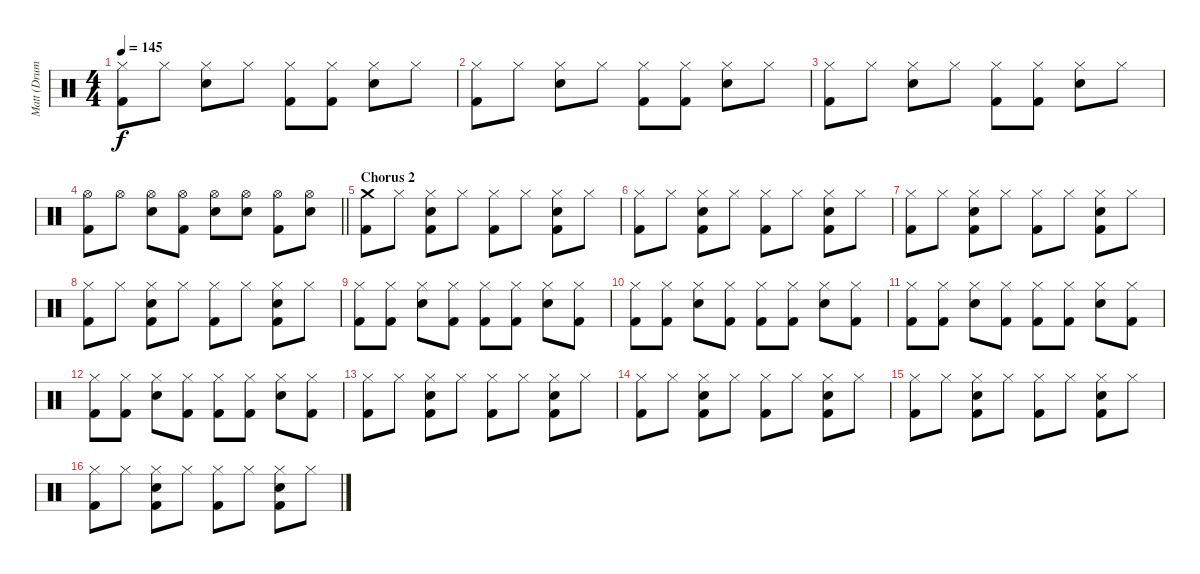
\track ("Matt (Drums)" "Matt (Drum") {instrument percussion}
\staff {score}
\articulation defaults
\ts (4 4)
\tempo 145
\clef neutral
\ks c
("Hi-Hat (closed)" "Kick (hit) 2").8{dy f} "Hi-Hat (closed)".8 ("Hi-Hat (closed)" "Electric Snare (hit)").8 "Hi-Hat (closed)".8 ("Hi-Hat (closed)" "Kick (hit) 2").8 ("Hi-Hat (closed)" "Kick (hit) 2").8 ("Hi-Hat (closed)" "Electric Snare (hit)").8 "Hi-Hat (closed)".8 |
("Hi-Hat (closed)" "Kick (hit) 2").8 "Hi-Hat (closed)".8 ("Hi-Hat (closed)" "Electric Snare (hit)").8 "Hi-Hat (closed)".8 ("Hi-Hat (closed)" "Kick (hit) 2").8 ("Hi-Hat (closed)" "Kick (hit) 2").8 ("Hi-Hat (closed)" "Electric Snare (hit)").8 "Hi-Hat (closed)".8 |
("Hi-Hat (closed)" "Kick (hit) 2").8 "Hi-Hat (closed)".8 ("Hi-Hat (closed)" "Electric Snare (hit)").8 "Hi-Hat (closed)".8 ("Hi-Hat (closed)" "Kick (hit) 2").8 ("Hi-Hat (closed)" "Kick (hit) 2").8 ("Hi-Hat (closed)" "Electric Snare (hit)").8 "Hi-Hat (closed)".8 |
\barLineRight lightlight
("Hi-Hat (open)" "Kick (hit) 2").8 "Hi-Hat (open)".8 ("Hi-Hat (open)" "Electric Snare (hit)").8 ("Hi-Hat (open)" "Kick (hit) 2").8 ("Hi-Hat (open)" "Electric Snare (hit)").8 ("Hi-Hat (open)" "Electric Snare (hit)").8 ("Hi-Hat (open)" "Kick (hit) 2").8 ("Hi-Hat (open)" "Electric Snare (hit)").8 |
\section ("" "Chorus 2")
("Crash medium (hit)" "Kick (hit) 2").8 "Hi-Hat (closed)".8 ("Hi-Hat (closed)" "Electric Snare (hit)" "Kick (hit) 2").8 "Hi-Hat (closed)".8 ("Hi-Hat (closed)" "Kick (hit) 2").8 "Hi-Hat (closed)".8 ("Hi-Hat (closed)" "Electric Snare (hit)" "Kick (hit) 2").8 "Hi-Hat (closed)".8 |
("Hi-Hat (closed)" "Kick (hit) 2").8 "Hi-Hat (closed)".8 ("Hi-Hat (closed)" "Electric Snare (hit)" "Kick (hit) 2").8 "Hi-Hat (closed)".8 ("Hi-Hat (closed)" "Kick (hit) 2").8 "Hi-Hat (closed)".8 ("Hi-Hat (closed)" "Electric Snare (hit)" "Kick (hit) 2").8 "Hi-Hat (closed)".8 |
("Hi-Hat (closed)" "Kick (hit) 2").8 "Hi-Hat (closed)".8 ("Hi-Hat (closed)" "Electric Snare (hit)" "Kick (hit) 2").8 "Hi-Hat (closed)".8 ("Hi-Hat (closed)" "Kick (hit) 2").8 "Hi-Hat (closed)".8 ("Hi-Hat (closed)" "Electric Snare (hit)" "Kick (hit) 2").8 "Hi-Hat (closed)".8 |
("Hi-Hat (closed)" "Kick (hit) 2").8 "Hi-Hat (closed)".8 ("Hi-Hat (closed)" "Electric Snare (hit)" "Kick (hit) 2").8 "Hi-Hat (closed)".8 ("Hi-Hat (closed)" "Kick (hit) 2").8 "Hi-Hat (closed)".8 ("Hi-Hat (closed)" "Electric Snare (hit)" "Kick (hit) 2").8 "Hi-Hat (closed)".8 |
("Hi-Hat (closed)" "Kick (hit) 2").8 ("Hi-Hat (closed)" "Kick (hit) 2").8 ("Hi-Hat (closed)" "Electric Snare (hit)").8 ("Hi-Hat (closed)" "Kick (hit) 2").8 ("Hi-Hat (closed)" "Kick (hit) 2").8 ("Hi-Hat (closed)" "Kick (hit) 2").8 ("Hi-Hat (closed)" "Electric Snare (hit)").8 ("Hi-Hat (closed)" "Kick (hit) 2").8 |
("Hi-Hat (closed)" "Kick (hit) 2").8 ("Hi-Hat (closed)" "Kick (hit) 2").8 ("Hi-Hat (closed)" "Electric Snare (hit)").8 ("Hi-Hat (closed)" "Kick (hit) 2").8 ("Hi-Hat (closed)" "Kick (hit) 2").8 ("Hi-Hat (closed)" "Kick (hit) 2").8 ("Hi-Hat (closed)" "Electric Snare (hit)").8 ("Hi-Hat (closed)" "Kick (hit) 2").8 |
("Hi-Hat (closed)" "Kick (hit) 2").8 ("Hi-Hat (closed)" "Kick (hit) 2").8 ("Hi-Hat (closed)" "Electric Snare (hit)").8 ("Hi-Hat (closed)" "Kick (hit) 2").8 ("Hi-Hat (closed)" "Kick (hit) 2").8 ("Hi-Hat (closed)" "Kick (hit) 2").8 ("Hi-Hat (closed)" "Electric Snare (hit)").8 ("Hi-Hat (closed)" "Kick (hit) 2").8 |
("Hi-Hat (closed)" "Kick (hit) 2").8 ("Hi-Hat (closed)" "Kick (hit) 2").8 ("Hi-Hat (closed)" "Electric Snare (hit)").8 ("Hi-Hat (closed)" "Kick (hit) 2").8 ("Hi-Hat (closed)" "Kick (hit) 2").8 ("Hi-Hat (closed)" "Kick (hit) 2").8 ("Hi-Hat (closed)" "Electric Snare (hit)").8 ("Hi-Hat (closed)" "Kick (hit) 2").8 |
("Hi-Hat (closed)" "Kick (hit) 2").8 "Hi-Hat (closed)".8 ("Hi-Hat (closed)" "Electric Snare (hit)" "Kick (hit) 2").8 "Hi-Hat (closed)".8 ("Hi-Hat (closed)" "Kick (hit) 2").8 "Hi-Hat (closed)".8 ("Hi-Hat (closed)" "Electric Snare (hit)" "Kick (hit) 2").8 "Hi-Hat (closed)".8 |
("Hi-Hat (closed)" "Kick (hit) 2").8 "Hi-Hat (closed)".8 ("Hi-Hat (closed)" "Electric Snare (hit)" "Kick (hit) 2").8 "Hi-Hat (closed)".8 ("Hi-Hat (closed)" "Kick (hit) 2").8 "Hi-Hat (closed)".8 ("Hi-Hat (closed)" "Electric Snare (hit)" "Kick (hit) 2").8 "Hi-Hat (closed)".8 |
("Hi-Hat (closed)" "Kick (hit) 2").8 "Hi-Hat (closed)".8 ("Hi-Hat (closed)" "Electric Snare (hit)" "Kick (hit) 2").8 "Hi-Hat (closed)".8 ("Hi-Hat (closed)" "Kick (hit) 2").8 "Hi-Hat (closed)".8 ("Hi-Hat (closed)" "Electric Snare (hit)" "Kick (hit) 2").8 "Hi-Hat (closed)".8 |
("Hi-Hat (closed)" "Kick (hit) 2").8 "Hi-Hat (closed)".8 ("Hi-Hat (closed)" "Electric Snare (hit)" "Kick (hit) 2").8 "Hi-Hat (closed)".8 ("Hi-Hat (closed)" "Kick (hit) 2").8 "Hi-Hat (closed)".8 ("Hi-Hat (closed)" "Electric Snare (hit)" "Kick (hit) 2").8 "Hi-Hat (closed)".8
